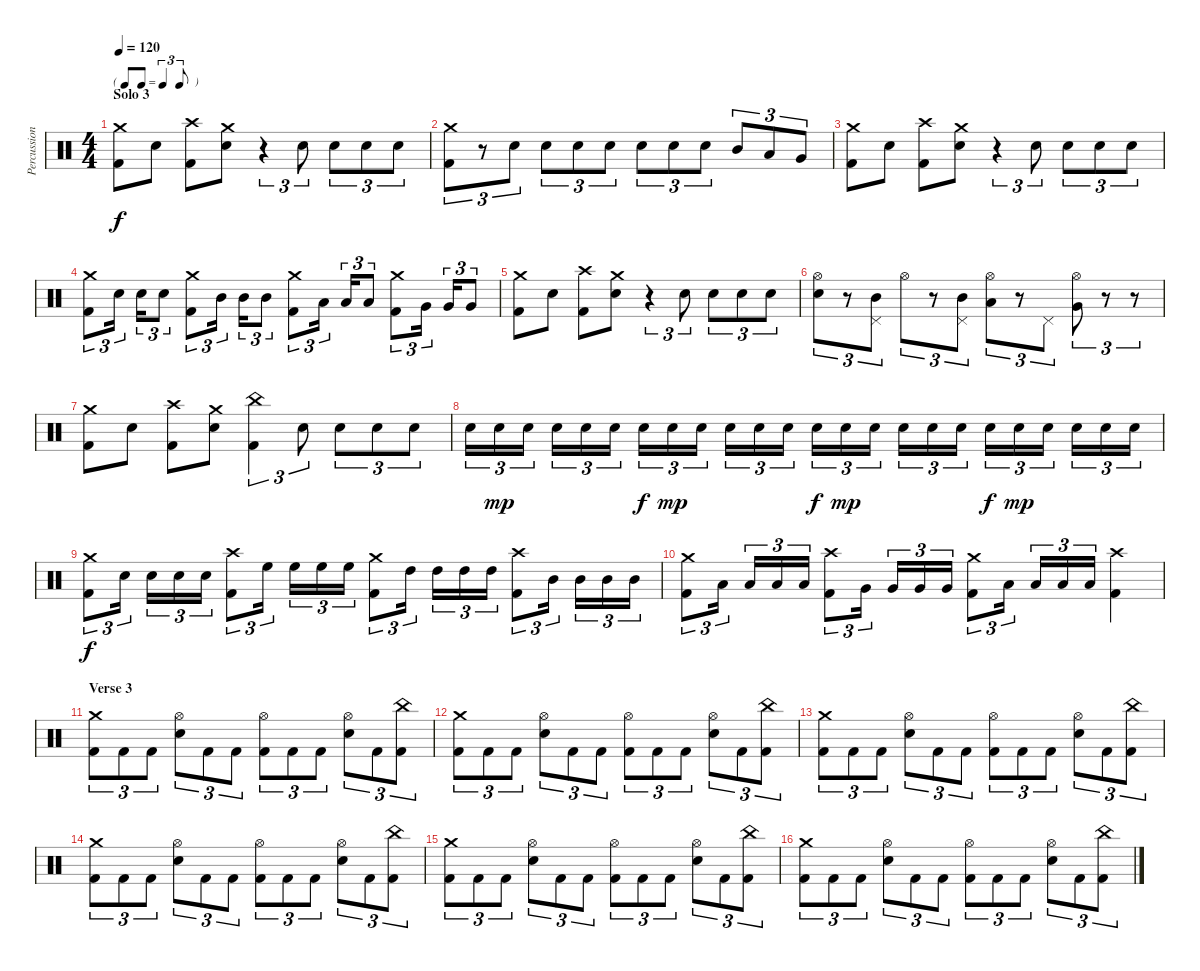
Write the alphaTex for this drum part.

\track ("Percussion" "Percussion") {instrument percussion}
\staff {score}
\articulation defaults
\ts (4 4)
\tf triplet8th
\section ("" "Solo 3")
\tempo 120
\clef neutral
\ks c
("Crash medium (hit)" "Kick (hit) 2").8{dy f} "Electric Snare (hit)".8 ("Crash high (hit)" "Kick (hit) 2").8 ("Crash medium (hit)" "Electric Snare (hit)").8 r.4{tu (3 2)} "Electric Snare (hit)".8{tu (3 2)} "Electric Snare (hit)".8{tu (3 2)} "Electric Snare (hit)".8{tu (3 2)} "Electric Snare (hit)".8{tu (3 2)} |
("Crash medium (hit)" "Kick (hit) 2").8{tu (3 2)} r.8{tu (3 2)} "Electric Snare (hit)".8{tu (3 2)} "Electric Snare (hit)".8{tu (3 2)} "Electric Snare (hit)".8{tu (3 2)} "Electric Snare (hit)".8{tu (3 2)} "Electric Snare (hit)".8{tu (3 2)} "Electric Snare (hit)".8{tu (3 2)} "Electric Snare (hit)".8{tu (3 2)} "Mid Tom (hit)".8{tu (3 2)} "Low Tom (hit)".8{tu (3 2)} "Very Low Tom (hit)".8{tu (3 2)} |
("Crash medium (hit)" "Kick (hit) 2").8 "Electric Snare (hit)".8 ("Crash high (hit)" "Kick (hit) 2").8 ("Crash medium (hit)" "Electric Snare (hit)").8 r.4{tu (3 2)} "Electric Snare (hit)".8{tu (3 2)} "Electric Snare (hit)".8{tu (3 2)} "Electric Snare (hit)".8{tu (3 2)} "Electric Snare (hit)".8{tu (3 2)} |
("Crash medium (hit)" "Kick (hit) 2").8{tu (3 2)} "Electric Snare (hit)".16{tu (3 2)} "Electric Snare (hit)".16{tu (3 2)} "Electric Snare (hit)".8{tu (3 2)} ("Crash medium (hit)" "Kick (hit) 2").8{tu (3 2)} "Mid Tom (hit)".16{tu (3 2)} "Mid Tom (hit)".16{tu (3 2)} "Mid Tom (hit)".8{tu (3 2)} ("Crash medium (hit)" "Kick (hit) 2").8{tu (3 2)} "Low Tom (hit)".16{tu (3 2)} "Low Tom (hit)".16{tu (3 2)} "Low Tom (hit)".8{tu (3 2)} ("Crash medium (hit)" "Kick (hit) 2").8{tu (3 2)} "Very Low Tom (hit)".16{tu (3 2)} "Very Low Tom (hit)".16{tu (3 2)} "Very Low Tom (hit)".8{tu (3 2)} |
("Crash medium (hit)" "Kick (hit) 2").8 "Electric Snare (hit)".8 ("Crash high (hit)" "Kick (hit) 2").8 ("Crash medium (hit)" "Electric Snare (hit)").8 r.4{tu (3 2)} "Electric Snare (hit)".8{tu (3 2)} "Electric Snare (hit)".8{tu (3 2)} "Electric Snare (hit)".8{tu (3 2)} "Electric Snare (hit)".8{tu (3 2)} |
("Hi-Hat (open)" "Electric Snare (hit)").8{tu (3 2)} r.8{tu (3 2)} ("Pedal Hi-Hat (hit)" "Mid Tom (hit)").8{tu (3 2)} "Hi-Hat (open)".8{tu (3 2)} r.8{tu (3 2)} ("Pedal Hi-Hat (hit)" "Mid Tom (hit)").8{tu (3 2)} ("Hi-Hat (open)" "Low Tom (hit)").8{tu (3 2)} r.8{tu (3 2)} "Pedal Hi-Hat (hit)".8{tu (3 2)} ("Hi-Hat (open)" "Very Low Tom (hit)").8{tu (3 2)} r.8{tu (3 2)} r.8{tu (3 2)} |
("Crash medium (hit)" "Kick (hit) 2").8 "Electric Snare (hit)".8 ("Crash high (hit)" "Kick (hit) 2").8 ("Crash medium (hit)" "Electric Snare (hit)").8 ("China (hit)" "Kick (hit) 2").4{tu (3 2)} "Electric Snare (hit)".8{tu (3 2)} "Electric Snare (hit)".8{tu (3 2)} "Electric Snare (hit)".8{tu (3 2)} "Electric Snare (hit)".8{tu (3 2)} |
"Electric Snare (hit)".16{tu (3 2)} "Electric Snare (hit)".16{tu (3 2) dy mp} "Electric Snare (hit)".16{tu (3 2)} "Electric Snare (hit)".16{tu (3 2)} "Electric Snare (hit)".16{tu (3 2)} "Electric Snare (hit)".16{tu (3 2)} "Electric Snare (hit)".16{tu (3 2) dy f} "Electric Snare (hit)".16{tu (3 2) dy mp} "Electric Snare (hit)".16{tu (3 2)} "Electric Snare (hit)".16{tu (3 2)} "Electric Snare (hit)".16{tu (3 2)} "Electric Snare (hit)".16{tu (3 2)} "Electric Snare (hit)".16{tu (3 2) dy f} "Electric Snare (hit)".16{tu (3 2) dy mp} "Electric Snare (hit)".16{tu (3 2)} "Electric Snare (hit)".16{tu (3 2)} "Electric Snare (hit)".16{tu (3 2)} "Electric Snare (hit)".16{tu (3 2)} "Electric Snare (hit)".16{tu (3 2) dy f} "Electric Snare (hit)".16{tu (3 2) dy mp} "Electric Snare (hit)".16{tu (3 2)} "Electric Snare (hit)".16{tu (3 2)} "Electric Snare (hit)".16{tu (3 2)} "Electric Snare (hit)".16{tu (3 2)} |
("Crash medium (hit)" "Kick (hit) 2").8{tu (3 2) dy f} "Electric Snare (hit)".16{tu (3 2)} "Electric Snare (hit)".16{tu (3 2)} "Electric Snare (hit)".16{tu (3 2)} "Electric Snare (hit)".16{tu (3 2)} ("Crash high (hit)" "Kick (hit) 2").8{tu (3 2)} "High Floor Tom (hit)".16{tu (3 2)} "High Floor Tom (hit)".16{tu (3 2)} "High Floor Tom (hit)".16{tu (3 2)} "High Floor Tom (hit)".16{tu (3 2)} ("Crash medium (hit)" "Kick (hit) 2").8{tu (3 2)} "High Tom (hit)".16{tu (3 2)} "High Tom (hit)".16{tu (3 2)} "High Tom (hit)".16{tu (3 2)} "High Tom (hit)".16{tu (3 2)} ("Crash high (hit)" "Kick (hit) 2").8{tu (3 2)} "Mid Tom (hit)".16{tu (3 2)} "Mid Tom (hit)".16{tu (3 2)} "Mid Tom (hit)".16{tu (3 2)} "Mid Tom (hit)".16{tu (3 2)} |
("Crash medium (hit)" "Kick (hit) 2").8{tu (3 2)} "Low Tom (hit)".16{tu (3 2)} "Low Tom (hit)".16{tu (3 2)} "Low Tom (hit)".16{tu (3 2)} "Low Tom (hit)".16{tu (3 2)} ("Crash high (hit)" "Kick (hit) 2").8{tu (3 2)} "Very Low Tom (hit)".16{tu (3 2)} "Very Low Tom (hit)".16{tu (3 2)} "Very Low Tom (hit)".16{tu (3 2)} "Very Low Tom (hit)".16{tu (3 2)} ("Crash medium (hit)" "Kick (hit) 2").8{tu (3 2)} "Low Floor Tom (hit)".16{tu (3 2)} "Low Floor Tom (hit)".16{tu (3 2)} "Low Floor Tom (hit)".16{tu (3 2)} "Low Floor Tom (hit)".16{tu (3 2)} ("Crash high (hit)" "Kick (hit) 2").4 |
\section ("" "Verse 3")
("Crash medium (hit)" "Kick (hit) 2").8{tu (3 2)} "Kick (hit) 2".8{tu (3 2)} "Kick (hit) 2".8{tu (3 2)} ("Hi-Hat (open)" "Electric Snare (hit)").8{tu (3 2)} "Kick (hit) 2".8{tu (3 2)} "Kick (hit) 2".8{tu (3 2)} ("Hi-Hat (open)" "Kick (hit) 2").8{tu (3 2)} "Kick (hit) 2".8{tu (3 2)} "Kick (hit) 2".8{tu (3 2)} ("Hi-Hat (open)" "Electric Snare (hit)").8{tu (3 2)} "Kick (hit) 2".8{tu (3 2)} ("China (hit)" "Kick (hit) 2").8{tu (3 2)} |
("Crash medium (hit)" "Kick (hit) 2").8{tu (3 2)} "Kick (hit) 2".8{tu (3 2)} "Kick (hit) 2".8{tu (3 2)} ("Hi-Hat (open)" "Electric Snare (hit)").8{tu (3 2)} "Kick (hit) 2".8{tu (3 2)} "Kick (hit) 2".8{tu (3 2)} ("Hi-Hat (open)" "Kick (hit) 2").8{tu (3 2)} "Kick (hit) 2".8{tu (3 2)} "Kick (hit) 2".8{tu (3 2)} ("Hi-Hat (open)" "Electric Snare (hit)").8{tu (3 2)} "Kick (hit) 2".8{tu (3 2)} ("China (hit)" "Kick (hit) 2").8{tu (3 2)} |
("Crash medium (hit)" "Kick (hit) 2").8{tu (3 2)} "Kick (hit) 2".8{tu (3 2)} "Kick (hit) 2".8{tu (3 2)} ("Hi-Hat (open)" "Electric Snare (hit)").8{tu (3 2)} "Kick (hit) 2".8{tu (3 2)} "Kick (hit) 2".8{tu (3 2)} ("Hi-Hat (open)" "Kick (hit) 2").8{tu (3 2)} "Kick (hit) 2".8{tu (3 2)} "Kick (hit) 2".8{tu (3 2)} ("Hi-Hat (open)" "Electric Snare (hit)").8{tu (3 2)} "Kick (hit) 2".8{tu (3 2)} ("China (hit)" "Kick (hit) 2").8{tu (3 2)} |
("Crash medium (hit)" "Kick (hit) 2").8{tu (3 2)} "Kick (hit) 2".8{tu (3 2)} "Kick (hit) 2".8{tu (3 2)} ("Hi-Hat (open)" "Electric Snare (hit)").8{tu (3 2)} "Kick (hit) 2".8{tu (3 2)} "Kick (hit) 2".8{tu (3 2)} ("Hi-Hat (open)" "Kick (hit) 2").8{tu (3 2)} "Kick (hit) 2".8{tu (3 2)} "Kick (hit) 2".8{tu (3 2)} ("Hi-Hat (open)" "Electric Snare (hit)").8{tu (3 2)} "Kick (hit) 2".8{tu (3 2)} ("China (hit)" "Kick (hit) 2").8{tu (3 2)} |
("Crash medium (hit)" "Kick (hit) 2").8{tu (3 2)} "Kick (hit) 2".8{tu (3 2)} "Kick (hit) 2".8{tu (3 2)} ("Hi-Hat (open)" "Electric Snare (hit)").8{tu (3 2)} "Kick (hit) 2".8{tu (3 2)} "Kick (hit) 2".8{tu (3 2)} ("Hi-Hat (open)" "Kick (hit) 2").8{tu (3 2)} "Kick (hit) 2".8{tu (3 2)} "Kick (hit) 2".8{tu (3 2)} ("Hi-Hat (open)" "Electric Snare (hit)").8{tu (3 2)} "Kick (hit) 2".8{tu (3 2)} ("China (hit)" "Kick (hit) 2").8{tu (3 2)} |
("Crash medium (hit)" "Kick (hit) 2").8{tu (3 2)} "Kick (hit) 2".8{tu (3 2)} "Kick (hit) 2".8{tu (3 2)} ("Hi-Hat (open)" "Electric Snare (hit)").8{tu (3 2)} "Kick (hit) 2".8{tu (3 2)} "Kick (hit) 2".8{tu (3 2)} ("Hi-Hat (open)" "Kick (hit) 2").8{tu (3 2)} "Kick (hit) 2".8{tu (3 2)} "Kick (hit) 2".8{tu (3 2)} ("Hi-Hat (open)" "Electric Snare (hit)").8{tu (3 2)} "Kick (hit) 2".8{tu (3 2)} ("China (hit)" "Kick (hit) 2").8{tu (3 2)}
